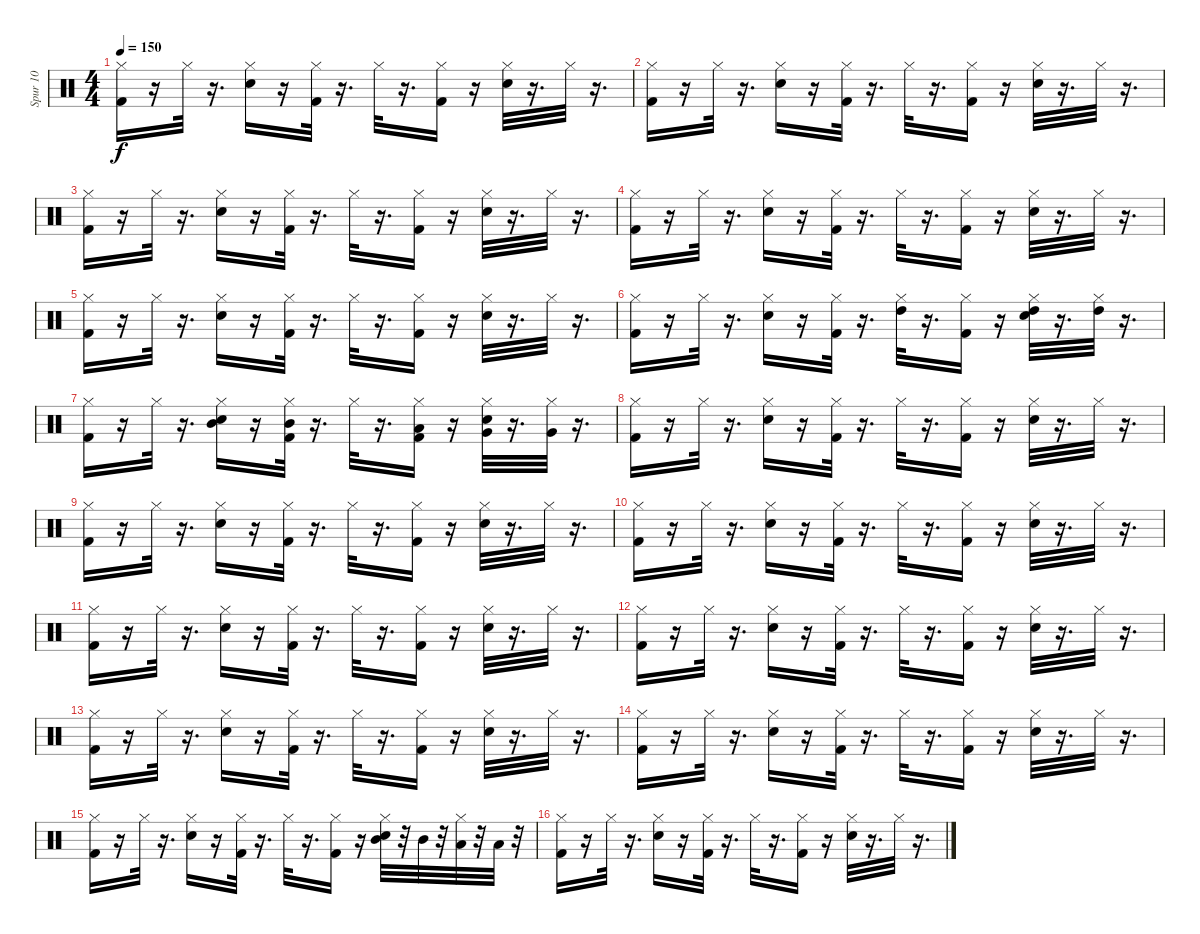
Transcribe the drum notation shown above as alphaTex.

\track ("Spur 10" "Spur 10") {instrument percussion}
\staff {score}
\articulation defaults
\ts (4 4)
\tempo 150
\clef neutral
\ks c
("Kick (hit) 2" "Hi-Hat (closed)").16{dy f} r.16 "Hi-Hat (closed)".32 r.16{d} ("Electric Snare (hit)" "Hi-Hat (closed)").16 r.16 ("Kick (hit) 2" "Hi-Hat (closed)").32 r.16{d} "Hi-Hat (closed)".32 r.16{d} ("Kick (hit) 2" "Hi-Hat (closed)").16 r.16 ("Electric Snare (hit)" "Hi-Hat (closed)").32 r.16{d} "Hi-Hat (closed)".32 r.16{d} |
("Kick (hit) 2" "Hi-Hat (closed)").16 r.16 "Hi-Hat (closed)".32 r.16{d} ("Electric Snare (hit)" "Hi-Hat (closed)").16 r.16 ("Kick (hit) 2" "Hi-Hat (closed)").32 r.16{d} "Hi-Hat (closed)".32 r.16{d} ("Kick (hit) 2" "Hi-Hat (closed)").16 r.16 ("Electric Snare (hit)" "Hi-Hat (closed)").32 r.16{d} "Hi-Hat (closed)".32 r.16{d} |
("Kick (hit) 2" "Hi-Hat (closed)").16 r.16 "Hi-Hat (closed)".32 r.16{d} ("Electric Snare (hit)" "Hi-Hat (closed)").16 r.16 ("Kick (hit) 2" "Hi-Hat (closed)").32 r.16{d} "Hi-Hat (closed)".32 r.16{d} ("Kick (hit) 2" "Hi-Hat (closed)").16 r.16 ("Electric Snare (hit)" "Hi-Hat (closed)").32 r.16{d} "Hi-Hat (closed)".32 r.16{d} |
("Hi-Hat (closed)" "Kick (hit) 2").16 r.16 "Hi-Hat (closed)".32 r.16{d} ("Hi-Hat (closed)" "Electric Snare (hit)").16 r.16 ("Hi-Hat (closed)" "Kick (hit) 2").32 r.16{d} "Hi-Hat (closed)".32 r.16{d} ("Kick (hit) 2" "Hi-Hat (closed)").16 r.16 ("Electric Snare (hit)" "Hi-Hat (closed)").32 r.16{d} "Hi-Hat (closed)".32 r.16{d} |
("Kick (hit) 2" "Hi-Hat (closed)").16 r.16 "Hi-Hat (closed)".32 r.16{d} ("Electric Snare (hit)" "Hi-Hat (closed)").16 r.16 ("Kick (hit) 2" "Hi-Hat (closed)").32 r.16{d} "Hi-Hat (closed)".32 r.16{d} ("Kick (hit) 2" "Hi-Hat (closed)").16 r.16 ("Electric Snare (hit)" "Hi-Hat (closed)").32 r.16{d} "Hi-Hat (closed)".32 r.16{d} |
("Kick (hit) 2" "Hi-Hat (closed)").16 r.16 "Hi-Hat (closed)".32 r.16{d} ("Electric Snare (hit)" "Hi-Hat (closed)").16 r.16 ("Kick (hit) 2" "Hi-Hat (closed)").32 r.16{d} ("High Tom (hit)" "Hi-Hat (closed)").32 r.16{d} ("Kick (hit) 2" "Hi-Hat (closed)").16 r.16 ("Electric Snare (hit)" "Hi-Hat (closed)" "High Tom (hit)").32 r.16{d} ("High Tom (hit)" "Hi-Hat (closed)").32 r.16{d} |
("Kick (hit) 2" "Hi-Hat (closed)").16 r.16 "Hi-Hat (closed)".32 r.16{d} ("Electric Snare (hit)" "Hi-Hat (closed)" "Mid Tom (hit)").16 r.16 ("Kick (hit) 2" "Hi-Hat (closed)" "Mid Tom (hit)").32 r.16{d} "Hi-Hat (closed)".32 r.16{d} ("Kick (hit) 2" "Hi-Hat (closed)" "Low Tom (hit)").16 r.16 ("Electric Snare (hit)" "Very Low Tom (hit)" "Hi-Hat (closed)").32 r.16{d} ("Very Low Tom (hit)" "Hi-Hat (closed)").32 r.16{d} |
("Hi-Hat (closed)" "Kick (hit) 2").16 r.16 "Hi-Hat (closed)".32 r.16{d} ("Hi-Hat (closed)" "Electric Snare (hit)").16 r.16 ("Kick (hit) 2" "Hi-Hat (closed)").32 r.16{d} "Hi-Hat (closed)".32 r.16{d} ("Hi-Hat (closed)" "Kick (hit) 2").16 r.16 ("Hi-Hat (closed)" "Electric Snare (hit)").32 r.16{d} "Hi-Hat (closed)".32 r.16{d} |
("Kick (hit) 2" "Hi-Hat (closed)").16 r.16 "Hi-Hat (closed)".32 r.16{d} ("Electric Snare (hit)" "Hi-Hat (closed)").16 r.16 ("Kick (hit) 2" "Hi-Hat (closed)").32 r.16{d} "Hi-Hat (closed)".32 r.16{d} ("Kick (hit) 2" "Hi-Hat (closed)").16 r.16 ("Electric Snare (hit)" "Hi-Hat (closed)").32 r.16{d} "Hi-Hat (closed)".32 r.16{d} |
("Kick (hit) 2" "Hi-Hat (closed)").16 r.16 "Hi-Hat (closed)".32 r.16{d} ("Electric Snare (hit)" "Hi-Hat (closed)").16 r.16 ("Kick (hit) 2" "Hi-Hat (closed)").32 r.16{d} "Hi-Hat (closed)".32 r.16{d} ("Kick (hit) 2" "Hi-Hat (closed)").16 r.16 ("Electric Snare (hit)" "Hi-Hat (closed)").32 r.16{d} "Hi-Hat (closed)".32 r.16{d} |
("Kick (hit) 2" "Hi-Hat (closed)").16 r.16 "Hi-Hat (closed)".32 r.16{d} ("Electric Snare (hit)" "Hi-Hat (closed)").16 r.16 ("Kick (hit) 2" "Hi-Hat (closed)").32 r.16{d} "Hi-Hat (closed)".32 r.16{d} ("Kick (hit) 2" "Hi-Hat (closed)").16 r.16 ("Electric Snare (hit)" "Hi-Hat (closed)").32 r.16{d} "Hi-Hat (closed)".32 r.16{d} |
("Hi-Hat (closed)" "Kick (hit) 2").16 r.16 "Hi-Hat (closed)".32 r.16{d} ("Hi-Hat (closed)" "Electric Snare (hit)").16 r.16 ("Hi-Hat (closed)" "Kick (hit) 2").32 r.16{d} "Hi-Hat (closed)".32 r.16{d} ("Kick (hit) 2" "Hi-Hat (closed)").16 r.16 ("Electric Snare (hit)" "Hi-Hat (closed)").32 r.16{d} "Hi-Hat (closed)".32 r.16{d} |
("Kick (hit) 2" "Hi-Hat (closed)").16 r.16 "Hi-Hat (closed)".32 r.16{d} ("Electric Snare (hit)" "Hi-Hat (closed)").16 r.16 ("Kick (hit) 2" "Hi-Hat (closed)").32 r.16{d} "Hi-Hat (closed)".32 r.16{d} ("Kick (hit) 2" "Hi-Hat (closed)").16 r.16 ("Electric Snare (hit)" "Hi-Hat (closed)").32 r.16{d} "Hi-Hat (closed)".32 r.16{d} |
("Kick (hit) 2" "Hi-Hat (closed)").16 r.16 "Hi-Hat (closed)".32 r.16{d} ("Electric Snare (hit)" "Hi-Hat (closed)").16 r.16 ("Kick (hit) 2" "Hi-Hat (closed)").32 r.16{d} "Hi-Hat (closed)".32 r.16{d} ("Kick (hit) 2" "Hi-Hat (closed)").16 r.16 ("Electric Snare (hit)" "Hi-Hat (closed)").32 r.16{d} "Hi-Hat (closed)".32 r.16{d} |
("Kick (hit) 2" "Hi-Hat (closed)").16 r.16 "Hi-Hat (closed)".32 r.16{d} ("Electric Snare (hit)" "Hi-Hat (closed)").16 r.16 ("Kick (hit) 2" "Hi-Hat (closed)").32 r.16{d} "Hi-Hat (closed)".32 r.16{d} ("Kick (hit) 2" "Hi-Hat (closed)").16 r.16 ("Electric Snare (hit)" "Mid Tom (hit)" "Hi-Hat (closed)").32 r.32 "Mid Tom (hit)".32 r.32 ("Low Tom (hit)" "Hi-Hat (closed)").32 r.32 "Low Tom (hit)".32 r.32 |
("Hi-Hat (closed)" "Kick (hit) 2").16 r.16 "Hi-Hat (closed)".32 r.16{d} ("Hi-Hat (closed)" "Electric Snare (hit)").16 r.16 ("Kick (hit) 2" "Hi-Hat (closed)").32 r.16{d} "Hi-Hat (closed)".32 r.16{d} ("Hi-Hat (closed)" "Kick (hit) 2").16 r.16 ("Electric Snare (hit)" "Hi-Hat (closed)").32 r.16{d} "Hi-Hat (closed)".32 r.16{d}
